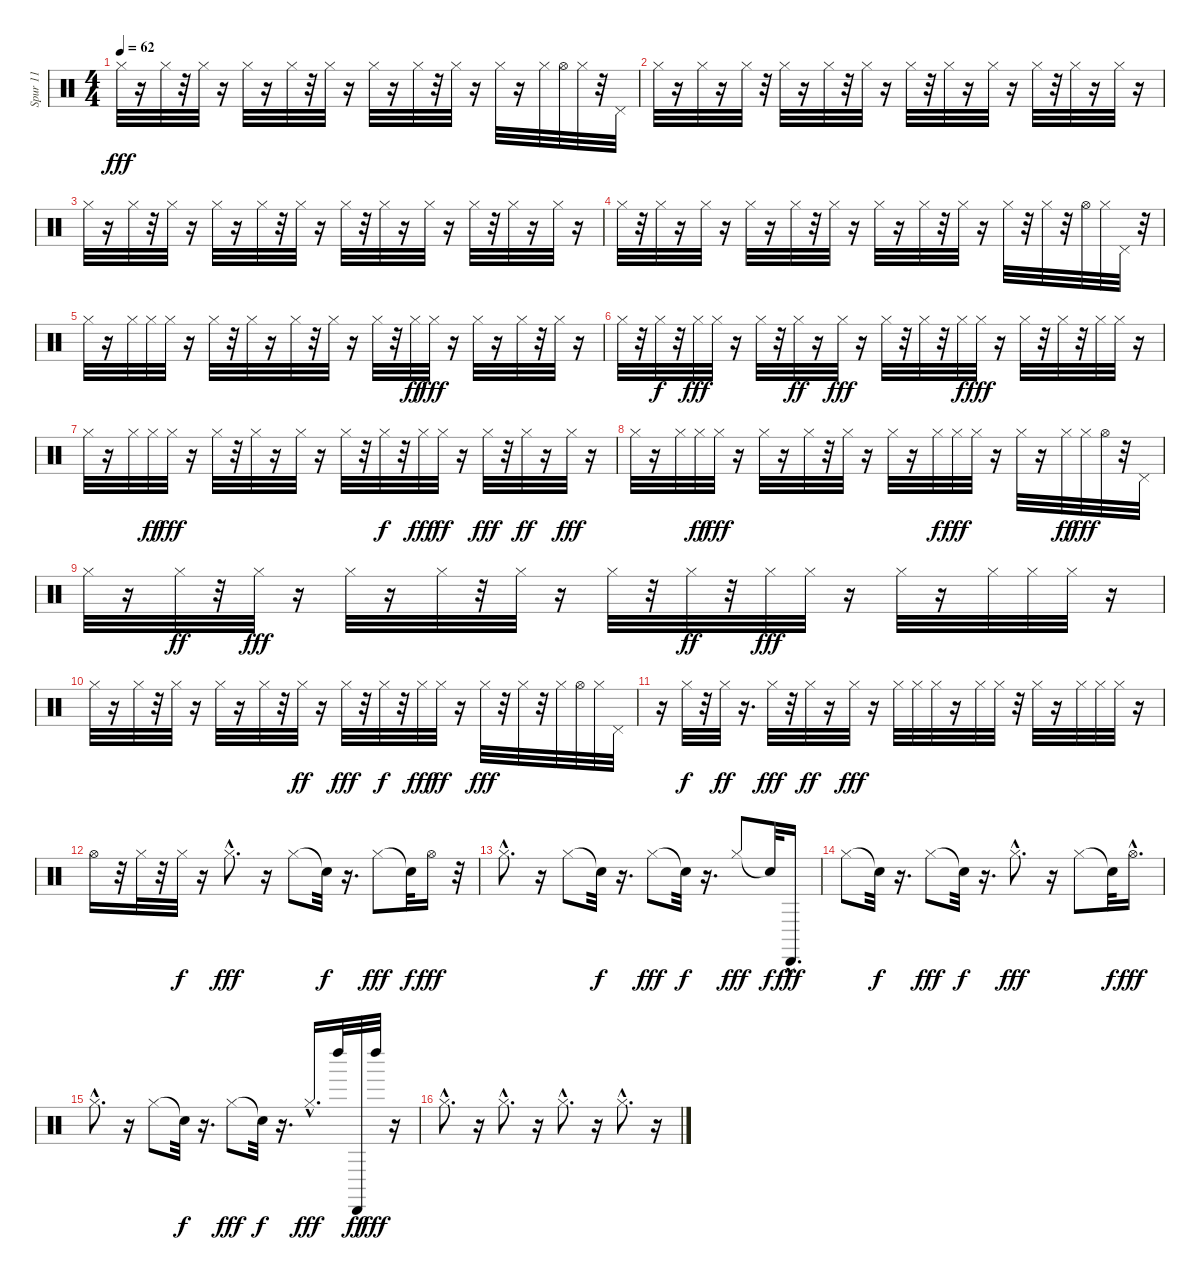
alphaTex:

\track ("Spur 11" "Spur 11") {instrument percussion}
\staff {score}
\articulation defaults
\ts (4 4)
\tempo 62
\clef neutral
\ks c "Hi-Hat (closed)".32{dy fff}
r.16 "Hi-Hat (closed)".32 r.32 "Hi-Hat (closed)".32 r.16 "Hi-Hat (closed)".32 r.16 "Hi-Hat (closed)".32 r.32 "Hi-Hat (closed)".32 r.16 "Hi-Hat (closed)".32 r.16 "Hi-Hat (closed)".32 r.32 "Hi-Hat (closed)".32 r.16 "Hi-Hat (closed)".32 r.16 "Hi-Hat (closed)".32 "Hi-Hat (open)".32 "Hi-Hat (closed)".32 r.32 "Pedal Hi-Hat (hit)".32 |
"Hi-Hat (closed)".32 r.16 "Hi-Hat (closed)".32 r.16 "Hi-Hat (closed)".32 r.32 "Hi-Hat (closed)".32 r.16 "Hi-Hat (closed)".32 r.32 "Hi-Hat (closed)".32 r.16 "Hi-Hat (closed)".32 r.32 "Hi-Hat (closed)".32 r.16 "Hi-Hat (closed)".32 r.16 "Hi-Hat (closed)".32 r.32 "Hi-Hat (closed)".32 r.16 "Hi-Hat (closed)".32 r.16 |
"Hi-Hat (closed)".32 r.16 "Hi-Hat (closed)".32 r.32 "Hi-Hat (closed)".32 r.16 "Hi-Hat (closed)".32 r.16 "Hi-Hat (closed)".32 r.32 "Hi-Hat (closed)".32 r.16 "Hi-Hat (closed)".32 r.32 "Hi-Hat (closed)".32 r.16 "Hi-Hat (closed)".32 r.16 "Hi-Hat (closed)".32 r.32 "Hi-Hat (closed)".32 r.16 "Hi-Hat (closed)".32 r.16 |
"Hi-Hat (closed)".32 r.32 "Hi-Hat (closed)".32 r.16 "Hi-Hat (closed)".32 r.16 "Hi-Hat (closed)".32 r.16 "Hi-Hat (closed)".32 r.32 "Hi-Hat (closed)".32 r.16 "Hi-Hat (closed)".32 r.16 "Hi-Hat (closed)".32 r.32 "Hi-Hat (closed)".32 r.16 "Hi-Hat (closed)".32 r.32 "Hi-Hat (closed)".32 r.32 "Hi-Hat (open)".32 "Hi-Hat (closed)".32 "Pedal Hi-Hat (hit)".32 r.32 |
"Hi-Hat (closed)".32 r.16 "Hi-Hat (closed)".32 "Hi-Hat (closed)".32 "Hi-Hat (closed)".32 r.16 "Hi-Hat (closed)".32 r.32 "Hi-Hat (closed)".32 r.16 "Hi-Hat (closed)".32 r.32 "Hi-Hat (closed)".32 r.16 "Hi-Hat (closed)".32 r.32 "Hi-Hat (closed)".32{dy ff} "Hi-Hat (closed)".32{dy fff} r.16 "Hi-Hat (closed)".32 r.16 "Hi-Hat (closed)".32 r.32 "Hi-Hat (closed)".32 r.16 |
"Hi-Hat (closed)".32 r.32 "Hi-Hat (closed)".32{dy f} r.32 "Hi-Hat (closed)".32{dy fff} "Hi-Hat (closed)".32 r.16 "Hi-Hat (closed)".32 r.32 "Hi-Hat (closed)".32{dy ff} r.16 "Hi-Hat (closed)".32{dy fff} r.16 "Hi-Hat (closed)".32 r.32 "Hi-Hat (closed)".32 r.32 "Hi-Hat (closed)".32{dy f} "Hi-Hat (closed)".32{dy fff} r.16 "Hi-Hat (closed)".32 r.32 "Hi-Hat (closed)".32 r.32 "Hi-Hat (closed)".32 "Hi-Hat (closed)".32 r.16 |
"Hi-Hat (closed)".32 r.16 "Hi-Hat (closed)".32 "Hi-Hat (closed)".32{dy ff} "Hi-Hat (closed)".32{dy fff} r.16 "Hi-Hat (closed)".32 r.32 "Hi-Hat (closed)".32 r.16 "Hi-Hat (closed)".32 r.16 "Hi-Hat (closed)".32 r.32 "Hi-Hat (closed)".32{dy f} r.32 "Hi-Hat (closed)".32{dy fff} "Hi-Hat (closed)".32{dy ff} r.16 "Hi-Hat (closed)".32{dy fff} r.32 "Hi-Hat (closed)".32{dy ff} r.16 "Hi-Hat (closed)".32{dy fff} r.16 |
"Hi-Hat (closed)".32 r.16 "Hi-Hat (closed)".32 "Hi-Hat (closed)".32{dy ff} "Hi-Hat (closed)".32{dy fff} r.16 "Hi-Hat (closed)".32 r.16 "Hi-Hat (closed)".32 r.32 "Hi-Hat (closed)".32 r.16 "Hi-Hat (closed)".32 r.16 "Hi-Hat (closed)".32{dy f} "Hi-Hat (closed)".32{dy fff} "Hi-Hat (closed)".32 r.16 "Hi-Hat (closed)".32 r.16 "Hi-Hat (closed)".32{dy ff} "Hi-Hat (closed)".32{dy fff} "Hi-Hat (open)".32 r.32 "Pedal Hi-Hat (hit)".32 |
"Hi-Hat (closed)".32 r.16 "Hi-Hat (closed)".32{dy ff} r.32 "Hi-Hat (closed)".32{dy fff} r.16 "Hi-Hat (closed)".32 r.16 "Hi-Hat (closed)".32 r.32 "Hi-Hat (closed)".32 r.16 "Hi-Hat (closed)".32 r.32 "Hi-Hat (closed)".32{dy ff} r.32 "Hi-Hat (closed)".32{dy fff} "Hi-Hat (closed)".32 r.16 "Hi-Hat (closed)".32 r.16 "Hi-Hat (closed)".32 "Hi-Hat (closed)".32 "Hi-Hat (closed)".32 r.16 |
"Hi-Hat (closed)".32 r.16 "Hi-Hat (closed)".32 r.32 "Hi-Hat (closed)".32 r.16 "Hi-Hat (closed)".32 r.16 "Hi-Hat (closed)".32 r.32 "Hi-Hat (closed)".32{dy ff} r.16 "Hi-Hat (closed)".32{dy fff} r.32 "Hi-Hat (closed)".32{dy f} r.32 "Hi-Hat (closed)".32{dy fff} "Hi-Hat (closed)".32{dy ff} r.16 "Hi-Hat (closed)".32{dy fff} r.32 "Hi-Hat (closed)".32 r.32 "Hi-Hat (closed)".32 "Hi-Hat (open)".32 "Hi-Hat (closed)".32 "Pedal Hi-Hat (hit)".32 |
r.16 "Hi-Hat (closed)".32{dy f} r.32 "Hi-Hat (closed)".32{dy ff} r.16{d} "Hi-Hat (closed)".32{dy fff} r.32 "Hi-Hat (closed)".32{dy ff} r.16 "Hi-Hat (closed)".32{dy fff} r.16 "Hi-Hat (closed)".32 "Hi-Hat (closed)".32 "Hi-Hat (closed)".32 r.16 "Hi-Hat (closed)".32 "Hi-Hat (closed)".32 r.32 "Hi-Hat (closed)".32 r.16 "Hi-Hat (closed)".32 "Hi-Hat (closed)".32 "Hi-Hat (closed)".32 r.16 |
"Hi-Hat (open)".16 r.32 "Hi-Hat (closed)".32 r.32 "Hi-Hat (closed)".32{dy f} r.16 "Hi-Hat (closed)"{hac}.8{d dy fff} r.16 "Hi-Hat (closed)".8 "Snare (hit)"{t}.32{dy f} r.16{d} "Hi-Hat (closed)".8{dy fff} "Snare (hit)"{t}.32{dy f} "Hi-Hat (open)".16{dy fff} r.32 |
"Hi-Hat (closed)"{hac}.8{d} r.16 "Hi-Hat (closed)".8 "Snare (hit)"{t}.32{dy f} r.16{d} "Hi-Hat (closed)".8{dy fff} "Snare (hit)"{t}.32{dy f} r.16{d} "Hi-Hat (closed)".8{dy fff} "Snare (hit)"{t}.32{dy f} "Cabasa (hit)"{hac}.16{d dy fff} |
"Hi-Hat (closed)".8 "Snare (hit)"{t}.32{dy f} r.16{d} "Hi-Hat (closed)".8{dy fff} "Snare (hit)"{t}.32{dy f} r.16{d} "Hi-Hat (closed)"{hac}.8{d dy fff} r.16 "Hi-Hat (closed)".8 "Snare (hit)"{t}.32{dy f} "Hi-Hat (open)"{hac}.16{d dy fff} |
"Hi-Hat (closed)"{hac}.8{d} r.16 "Hi-Hat (closed)".8 "Snare (hit)"{t}.32{dy f} r.16{d} "Hi-Hat (closed)".8{dy fff} "Snare (hit)"{t}.32{dy f} r.16{d} "Hi-Hat (closed)"{hac}.16{d dy fff} "Left Maraca (hit)".32 "Cabasa (hit)".32{dy ff} "Left Maraca (hit)".32{dy fff} r.16 |
"Hi-Hat (closed)"{hac}.8{d} r.16 "Hi-Hat (closed)"{hac}.8{d} r.16 "Hi-Hat (closed)"{hac}.8{d} r.16 "Hi-Hat (closed)"{hac}.8{d} r.16
